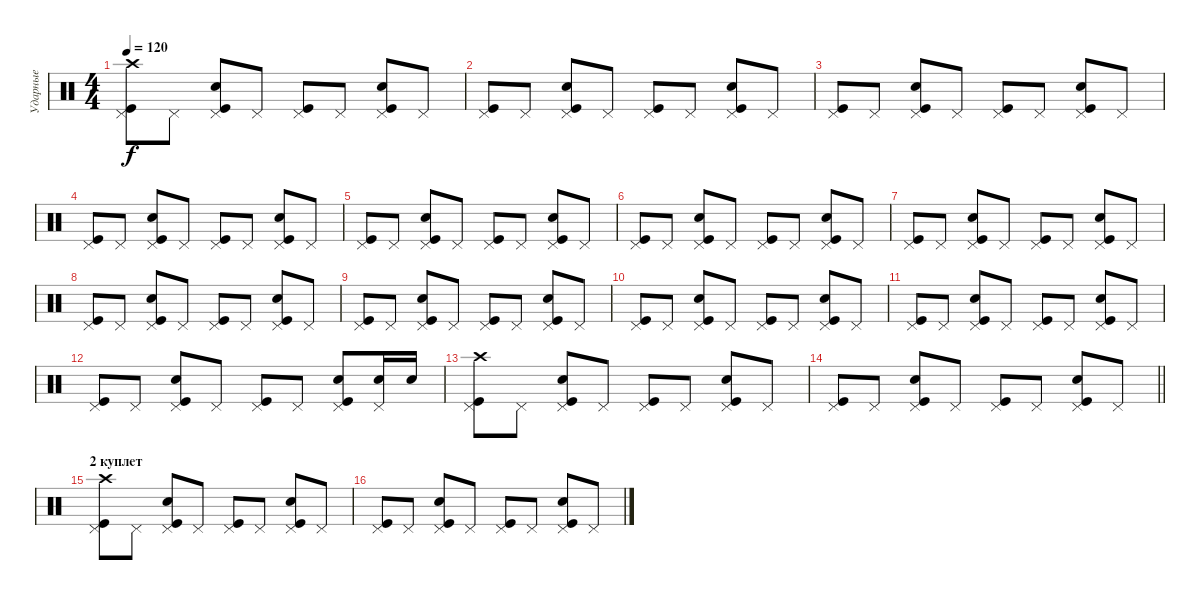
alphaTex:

\track ("Ударные" "Ударные") {instrument percussion}
\staff {score}
\articulation defaults
\ts (4 4)
\tempo 120
\clef neutral
\ks c
("Pedal Hi-Hat (hit)" "Kick (hit)" "Crash high (hit)").8{dy f} "Pedal Hi-Hat (hit)".8 ("Pedal Hi-Hat (hit)" "Kick (hit)" "Snare (hit) 2").8 "Pedal Hi-Hat (hit)".8 ("Pedal Hi-Hat (hit)" "Kick (hit)").8 "Pedal Hi-Hat (hit)".8 ("Pedal Hi-Hat (hit)" "Kick (hit)" "Snare (hit) 2").8 "Pedal Hi-Hat (hit)".8 |
("Pedal Hi-Hat (hit)" "Kick (hit)").8 "Pedal Hi-Hat (hit)".8 ("Pedal Hi-Hat (hit)" "Kick (hit)" "Snare (hit) 2").8 "Pedal Hi-Hat (hit)".8 ("Pedal Hi-Hat (hit)" "Kick (hit)").8 "Pedal Hi-Hat (hit)".8 ("Pedal Hi-Hat (hit)" "Kick (hit)" "Snare (hit) 2").8 "Pedal Hi-Hat (hit)".8 |
("Pedal Hi-Hat (hit)" "Kick (hit)").8 "Pedal Hi-Hat (hit)".8 ("Pedal Hi-Hat (hit)" "Kick (hit)" "Snare (hit) 2").8 "Pedal Hi-Hat (hit)".8 ("Pedal Hi-Hat (hit)" "Kick (hit)").8 "Pedal Hi-Hat (hit)".8 ("Pedal Hi-Hat (hit)" "Kick (hit)" "Snare (hit) 2").8 "Pedal Hi-Hat (hit)".8 |
("Pedal Hi-Hat (hit)" "Kick (hit)").8 "Pedal Hi-Hat (hit)".8 ("Pedal Hi-Hat (hit)" "Kick (hit)" "Snare (hit) 2").8 "Pedal Hi-Hat (hit)".8 ("Pedal Hi-Hat (hit)" "Kick (hit)").8 "Pedal Hi-Hat (hit)".8 ("Pedal Hi-Hat (hit)" "Kick (hit)" "Snare (hit) 2").8 "Pedal Hi-Hat (hit)".8 |
("Pedal Hi-Hat (hit)" "Kick (hit)").8 "Pedal Hi-Hat (hit)".8 ("Pedal Hi-Hat (hit)" "Kick (hit)" "Snare (hit) 2").8 "Pedal Hi-Hat (hit)".8 ("Pedal Hi-Hat (hit)" "Kick (hit)").8 "Pedal Hi-Hat (hit)".8 ("Pedal Hi-Hat (hit)" "Kick (hit)" "Snare (hit) 2").8 "Pedal Hi-Hat (hit)".8 |
("Pedal Hi-Hat (hit)" "Kick (hit)").8 "Pedal Hi-Hat (hit)".8 ("Pedal Hi-Hat (hit)" "Kick (hit)" "Snare (hit) 2").8 "Pedal Hi-Hat (hit)".8 ("Pedal Hi-Hat (hit)" "Kick (hit)").8 "Pedal Hi-Hat (hit)".8 ("Pedal Hi-Hat (hit)" "Kick (hit)" "Snare (hit) 2").8 "Pedal Hi-Hat (hit)".8 |
("Pedal Hi-Hat (hit)" "Kick (hit)").8 "Pedal Hi-Hat (hit)".8 ("Pedal Hi-Hat (hit)" "Kick (hit)" "Snare (hit) 2").8 "Pedal Hi-Hat (hit)".8 ("Pedal Hi-Hat (hit)" "Kick (hit)").8 "Pedal Hi-Hat (hit)".8 ("Pedal Hi-Hat (hit)" "Kick (hit)" "Snare (hit) 2").8 "Pedal Hi-Hat (hit)".8 |
("Pedal Hi-Hat (hit)" "Kick (hit)").8 "Pedal Hi-Hat (hit)".8 ("Pedal Hi-Hat (hit)" "Kick (hit)" "Snare (hit) 2").8 "Pedal Hi-Hat (hit)".8 ("Pedal Hi-Hat (hit)" "Kick (hit)").8 "Pedal Hi-Hat (hit)".8 ("Pedal Hi-Hat (hit)" "Kick (hit)" "Snare (hit) 2").8 "Pedal Hi-Hat (hit)".8 |
("Pedal Hi-Hat (hit)" "Kick (hit)").8 "Pedal Hi-Hat (hit)".8 ("Pedal Hi-Hat (hit)" "Kick (hit)" "Snare (hit) 2").8 "Pedal Hi-Hat (hit)".8 ("Pedal Hi-Hat (hit)" "Kick (hit)").8 "Pedal Hi-Hat (hit)".8 ("Pedal Hi-Hat (hit)" "Kick (hit)" "Snare (hit) 2").8 "Pedal Hi-Hat (hit)".8 |
("Pedal Hi-Hat (hit)" "Kick (hit)").8 "Pedal Hi-Hat (hit)".8 ("Pedal Hi-Hat (hit)" "Kick (hit)" "Snare (hit) 2").8 "Pedal Hi-Hat (hit)".8 ("Pedal Hi-Hat (hit)" "Kick (hit)").8 "Pedal Hi-Hat (hit)".8 ("Pedal Hi-Hat (hit)" "Kick (hit)" "Snare (hit) 2").8 "Pedal Hi-Hat (hit)".8 |
("Pedal Hi-Hat (hit)" "Kick (hit)").8 "Pedal Hi-Hat (hit)".8 ("Pedal Hi-Hat (hit)" "Kick (hit)" "Snare (hit) 2").8 "Pedal Hi-Hat (hit)".8 ("Pedal Hi-Hat (hit)" "Kick (hit)").8 "Pedal Hi-Hat (hit)".8 ("Pedal Hi-Hat (hit)" "Kick (hit)" "Snare (hit) 2").8 "Pedal Hi-Hat (hit)".8 |
("Pedal Hi-Hat (hit)" "Kick (hit)").8 "Pedal Hi-Hat (hit)".8 ("Pedal Hi-Hat (hit)" "Kick (hit)" "Snare (hit) 2").8 "Pedal Hi-Hat (hit)".8 ("Pedal Hi-Hat (hit)" "Kick (hit)").8 "Pedal Hi-Hat (hit)".8 ("Pedal Hi-Hat (hit)" "Kick (hit)" "Snare (hit) 2").8 ("Pedal Hi-Hat (hit)" "Snare (hit) 2").16 "Snare (hit) 2".16 |
("Pedal Hi-Hat (hit)" "Kick (hit)" "Crash high (hit)").8 "Pedal Hi-Hat (hit)".8 ("Pedal Hi-Hat (hit)" "Kick (hit)" "Snare (hit) 2").8 "Pedal Hi-Hat (hit)".8 ("Pedal Hi-Hat (hit)" "Kick (hit)").8 "Pedal Hi-Hat (hit)".8 ("Pedal Hi-Hat (hit)" "Kick (hit)" "Snare (hit) 2").8 "Pedal Hi-Hat (hit)".8 |
\barLineRight lightlight
("Pedal Hi-Hat (hit)" "Kick (hit)").8 "Pedal Hi-Hat (hit)".8 ("Pedal Hi-Hat (hit)" "Kick (hit)" "Snare (hit) 2").8 "Pedal Hi-Hat (hit)".8 ("Pedal Hi-Hat (hit)" "Kick (hit)").8 "Pedal Hi-Hat (hit)".8 ("Pedal Hi-Hat (hit)" "Kick (hit)" "Snare (hit) 2").8 "Pedal Hi-Hat (hit)".8 |
\section ("" "2 куплет")
("Pedal Hi-Hat (hit)" "Kick (hit)" "Crash high (hit)").8 "Pedal Hi-Hat (hit)".8 ("Pedal Hi-Hat (hit)" "Kick (hit)" "Snare (hit) 2").8 "Pedal Hi-Hat (hit)".8 ("Pedal Hi-Hat (hit)" "Kick (hit)").8 "Pedal Hi-Hat (hit)".8 ("Pedal Hi-Hat (hit)" "Kick (hit)" "Snare (hit) 2").8 "Pedal Hi-Hat (hit)".8 |
("Pedal Hi-Hat (hit)" "Kick (hit)").8 "Pedal Hi-Hat (hit)".8 ("Pedal Hi-Hat (hit)" "Kick (hit)" "Snare (hit) 2").8 "Pedal Hi-Hat (hit)".8 ("Pedal Hi-Hat (hit)" "Kick (hit)").8 "Pedal Hi-Hat (hit)".8 ("Pedal Hi-Hat (hit)" "Kick (hit)" "Snare (hit) 2").8 "Pedal Hi-Hat (hit)".8
